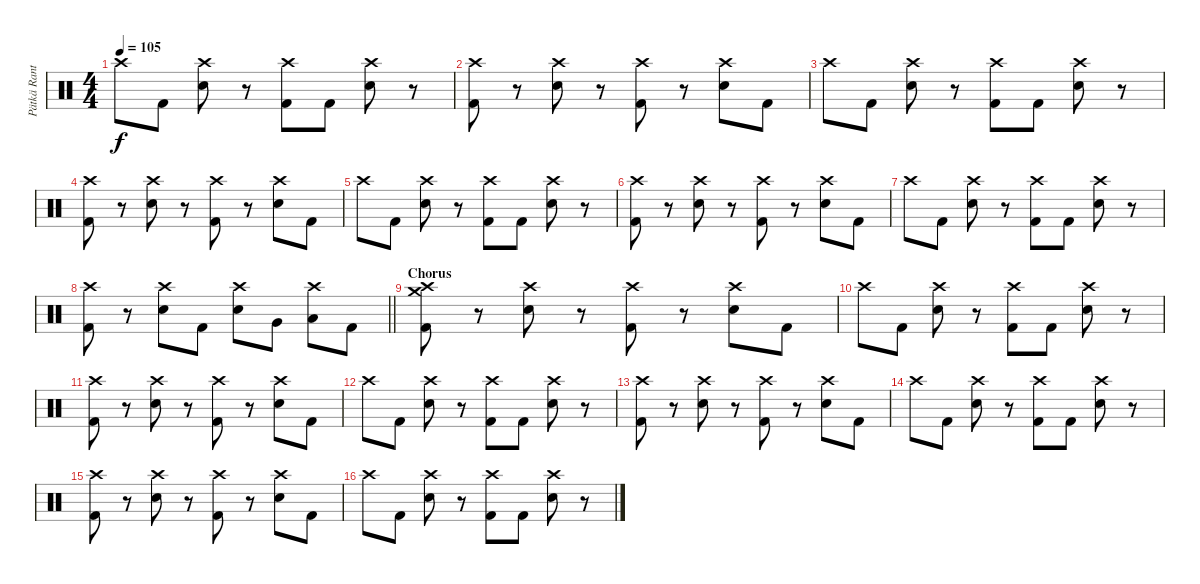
\track ("Pätkä Rantala (Drums)" "Pätkä Rant") {instrument percussion}
\staff {score}
\articulation defaults
\ts (4 4)
\tempo 105
\clef neutral
\ks c "Crash high (hit)".8{dy f} "Kick (hit) 2".8
("Crash high (hit)" "Snare (hit) 2").8 r.8 ("Crash high (hit)" "Kick (hit) 2").8 "Kick (hit) 2".8 ("Crash high (hit)" "Snare (hit) 2").8 r.8 |
("Crash high (hit)" "Kick (hit) 2").8 r.8 ("Crash high (hit)" "Snare (hit) 2").8 r.8 ("Crash high (hit)" "Kick (hit) 2").8 r.8 ("Crash high (hit)" "Snare (hit) 2").8 "Kick (hit) 2".8 |
"Crash high (hit)".8 "Kick (hit) 2".8 ("Crash high (hit)" "Snare (hit) 2").8 r.8 ("Crash high (hit)" "Kick (hit) 2").8 "Kick (hit) 2".8 ("Crash high (hit)" "Snare (hit) 2").8 r.8 |
("Crash high (hit)" "Kick (hit) 2").8 r.8 ("Crash high (hit)" "Snare (hit) 2").8 r.8 ("Crash high (hit)" "Kick (hit) 2").8 r.8 ("Crash high (hit)" "Snare (hit) 2").8 "Kick (hit) 2".8 |
"Crash high (hit)".8 "Kick (hit) 2".8 ("Crash high (hit)" "Snare (hit) 2").8 r.8 ("Crash high (hit)" "Kick (hit) 2").8 "Kick (hit) 2".8 ("Crash high (hit)" "Snare (hit) 2").8 r.8 |
("Crash high (hit)" "Kick (hit) 2").8 r.8 ("Crash high (hit)" "Snare (hit) 2").8 r.8 ("Crash high (hit)" "Kick (hit) 2").8 r.8 ("Crash high (hit)" "Snare (hit) 2").8 "Kick (hit) 2".8 |
"Crash high (hit)".8 "Kick (hit) 2".8 ("Crash high (hit)" "Snare (hit) 2").8 r.8 ("Crash high (hit)" "Kick (hit) 2").8 "Kick (hit) 2".8 ("Crash high (hit)" "Snare (hit) 2").8 r.8 |
\barLineRight lightlight
("Crash high (hit)" "Kick (hit) 2").8 r.8 ("Crash high (hit)" "Snare (hit) 2").8 "Kick (hit) 2".8 ("Crash high (hit)" "Snare (hit) 2").8 "Very Low Tom (hit)".8 ("Crash high (hit)" "Low Floor Tom (hit)").8 "Kick (hit) 2".8 |
\section ("" "Chorus")
("Crash medium (hit)" "Crash high (hit)" "Kick (hit) 2").8 r.8 ("Crash high (hit)" "Snare (hit) 2").8 r.8 ("Crash high (hit)" "Kick (hit) 2").8 r.8 ("Crash high (hit)" "Snare (hit) 2").8 "Kick (hit) 2".8 |
"Crash high (hit)".8 "Kick (hit) 2".8 ("Crash high (hit)" "Snare (hit) 2").8 r.8 ("Crash high (hit)" "Kick (hit) 2").8 "Kick (hit) 2".8 ("Crash high (hit)" "Snare (hit) 2").8 r.8 |
("Crash high (hit)" "Kick (hit) 2").8 r.8 ("Crash high (hit)" "Snare (hit) 2").8 r.8 ("Crash high (hit)" "Kick (hit) 2").8 r.8 ("Crash high (hit)" "Snare (hit) 2").8 "Kick (hit) 2".8 |
"Crash high (hit)".8 "Kick (hit) 2".8 ("Crash high (hit)" "Snare (hit) 2").8 r.8 ("Crash high (hit)" "Kick (hit) 2").8 "Kick (hit) 2".8 ("Crash high (hit)" "Snare (hit) 2").8 r.8 |
("Crash high (hit)" "Kick (hit) 2").8 r.8 ("Crash high (hit)" "Snare (hit) 2").8 r.8 ("Crash high (hit)" "Kick (hit) 2").8 r.8 ("Crash high (hit)" "Snare (hit) 2").8 "Kick (hit) 2".8 |
"Crash high (hit)".8 "Kick (hit) 2".8 ("Crash high (hit)" "Snare (hit) 2").8 r.8 ("Crash high (hit)" "Kick (hit) 2").8 "Kick (hit) 2".8 ("Crash high (hit)" "Snare (hit) 2").8 r.8 |
("Crash high (hit)" "Kick (hit) 2").8 r.8 ("Crash high (hit)" "Snare (hit) 2").8 r.8 ("Crash high (hit)" "Kick (hit) 2").8 r.8 ("Crash high (hit)" "Snare (hit) 2").8 "Kick (hit) 2".8 |
"Crash high (hit)".8 "Kick (hit) 2".8 ("Crash high (hit)" "Snare (hit) 2").8 r.8 ("Crash high (hit)" "Kick (hit) 2").8 "Kick (hit) 2".8 ("Crash high (hit)" "Snare (hit) 2").8 r.8
